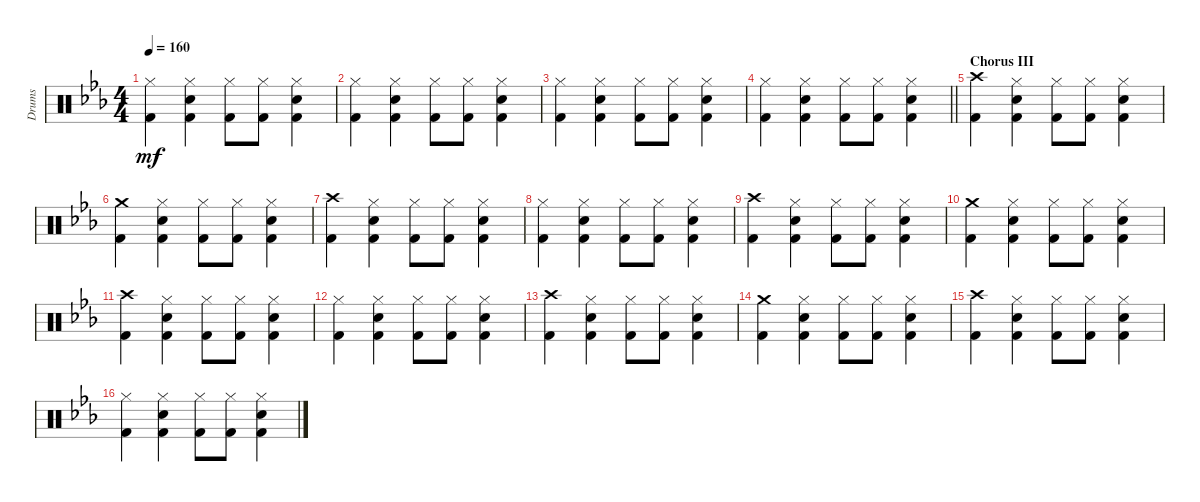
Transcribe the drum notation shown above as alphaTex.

\track ("Drums" "Drums") {instrument percussion}
\staff {score}
\articulation defaults
\ts (4 4)
\tempo 160
\clef neutral
\ks eb
("Hi-Hat (closed)" "Kick (hit) 2").4{dy mf} ("Hi-Hat (closed)" "Electric Snare (hit)" "Kick (hit) 2").4 ("Hi-Hat (closed)" "Kick (hit) 2").8 ("Hi-Hat (closed)" "Kick (hit) 2").8 ("Hi-Hat (closed)" "Electric Snare (hit)" "Kick (hit) 2").4 |
("Hi-Hat (closed)" "Kick (hit) 2").4 ("Hi-Hat (closed)" "Electric Snare (hit)" "Kick (hit) 2").4 ("Hi-Hat (closed)" "Kick (hit) 2").8 ("Hi-Hat (closed)" "Kick (hit) 2").8 ("Hi-Hat (closed)" "Electric Snare (hit)" "Kick (hit) 2").4 |
("Hi-Hat (closed)" "Kick (hit) 2").4 ("Hi-Hat (closed)" "Electric Snare (hit)" "Kick (hit) 2").4 ("Hi-Hat (closed)" "Kick (hit) 2").8 ("Hi-Hat (closed)" "Kick (hit) 2").8 ("Hi-Hat (closed)" "Electric Snare (hit)" "Kick (hit) 2").4 |
\barLineRight lightlight
("Hi-Hat (closed)" "Kick (hit) 2").4 ("Hi-Hat (closed)" "Electric Snare (hit)" "Kick (hit) 2").4 ("Hi-Hat (closed)" "Kick (hit) 2").8 ("Hi-Hat (closed)" "Kick (hit) 2").8 ("Hi-Hat (closed)" "Electric Snare (hit)" "Kick (hit) 2").4 |
\section ("" "Chorus III")
("Crash high (hit)" "Kick (hit) 2").4 ("Hi-Hat (closed)" "Electric Snare (hit)" "Kick (hit) 2").4 ("Hi-Hat (closed)" "Kick (hit) 2").8 ("Hi-Hat (closed)" "Kick (hit) 2").8 ("Hi-Hat (closed)" "Electric Snare (hit)" "Kick (hit) 2").4 |
("Crash medium (hit)" "Kick (hit) 2").4 ("Hi-Hat (closed)" "Electric Snare (hit)" "Kick (hit) 2").4 ("Hi-Hat (closed)" "Kick (hit) 2").8 ("Hi-Hat (closed)" "Kick (hit) 2").8 ("Hi-Hat (closed)" "Electric Snare (hit)" "Kick (hit) 2").4 |
("Crash high (hit)" "Kick (hit) 2").4 ("Hi-Hat (closed)" "Electric Snare (hit)" "Kick (hit) 2").4 ("Hi-Hat (closed)" "Kick (hit) 2").8 ("Hi-Hat (closed)" "Kick (hit) 2").8 ("Hi-Hat (closed)" "Electric Snare (hit)" "Kick (hit) 2").4 |
("Hi-Hat (closed)" "Kick (hit) 2").4 ("Hi-Hat (closed)" "Electric Snare (hit)" "Kick (hit) 2").4 ("Hi-Hat (closed)" "Kick (hit) 2").8 ("Hi-Hat (closed)" "Kick (hit) 2").8 ("Hi-Hat (closed)" "Electric Snare (hit)" "Kick (hit) 2").4 |
("Crash high (hit)" "Kick (hit) 2").4 ("Hi-Hat (closed)" "Electric Snare (hit)" "Kick (hit) 2").4 ("Hi-Hat (closed)" "Kick (hit) 2").8 ("Hi-Hat (closed)" "Kick (hit) 2").8 ("Hi-Hat (closed)" "Electric Snare (hit)" "Kick (hit) 2").4 |
("Crash medium (hit)" "Kick (hit) 2").4 ("Hi-Hat (closed)" "Electric Snare (hit)" "Kick (hit) 2").4 ("Hi-Hat (closed)" "Kick (hit) 2").8 ("Hi-Hat (closed)" "Kick (hit) 2").8 ("Hi-Hat (closed)" "Electric Snare (hit)" "Kick (hit) 2").4 |
("Crash high (hit)" "Kick (hit) 2").4 ("Hi-Hat (closed)" "Electric Snare (hit)" "Kick (hit) 2").4 ("Hi-Hat (closed)" "Kick (hit) 2").8 ("Hi-Hat (closed)" "Kick (hit) 2").8 ("Hi-Hat (closed)" "Electric Snare (hit)" "Kick (hit) 2").4 |
("Hi-Hat (closed)" "Kick (hit) 2").4 ("Hi-Hat (closed)" "Electric Snare (hit)" "Kick (hit) 2").4 ("Hi-Hat (closed)" "Kick (hit) 2").8 ("Hi-Hat (closed)" "Kick (hit) 2").8 ("Hi-Hat (closed)" "Electric Snare (hit)" "Kick (hit) 2").4 |
("Crash high (hit)" "Kick (hit) 2").4 ("Hi-Hat (closed)" "Electric Snare (hit)" "Kick (hit) 2").4 ("Hi-Hat (closed)" "Kick (hit) 2").8 ("Hi-Hat (closed)" "Kick (hit) 2").8 ("Hi-Hat (closed)" "Electric Snare (hit)" "Kick (hit) 2").4 |
("Crash medium (hit)" "Kick (hit) 2").4 ("Hi-Hat (closed)" "Electric Snare (hit)" "Kick (hit) 2").4 ("Hi-Hat (closed)" "Kick (hit) 2").8 ("Hi-Hat (closed)" "Kick (hit) 2").8 ("Hi-Hat (closed)" "Electric Snare (hit)" "Kick (hit) 2").4 |
("Crash high (hit)" "Kick (hit) 2").4 ("Hi-Hat (closed)" "Electric Snare (hit)" "Kick (hit) 2").4 ("Hi-Hat (closed)" "Kick (hit) 2").8 ("Hi-Hat (closed)" "Kick (hit) 2").8 ("Hi-Hat (closed)" "Electric Snare (hit)" "Kick (hit) 2").4 |
("Hi-Hat (closed)" "Kick (hit) 2").4 ("Hi-Hat (closed)" "Electric Snare (hit)" "Kick (hit) 2").4 ("Hi-Hat (closed)" "Kick (hit) 2").8 ("Hi-Hat (closed)" "Kick (hit) 2").8 ("Hi-Hat (closed)" "Electric Snare (hit)" "Kick (hit) 2").4
